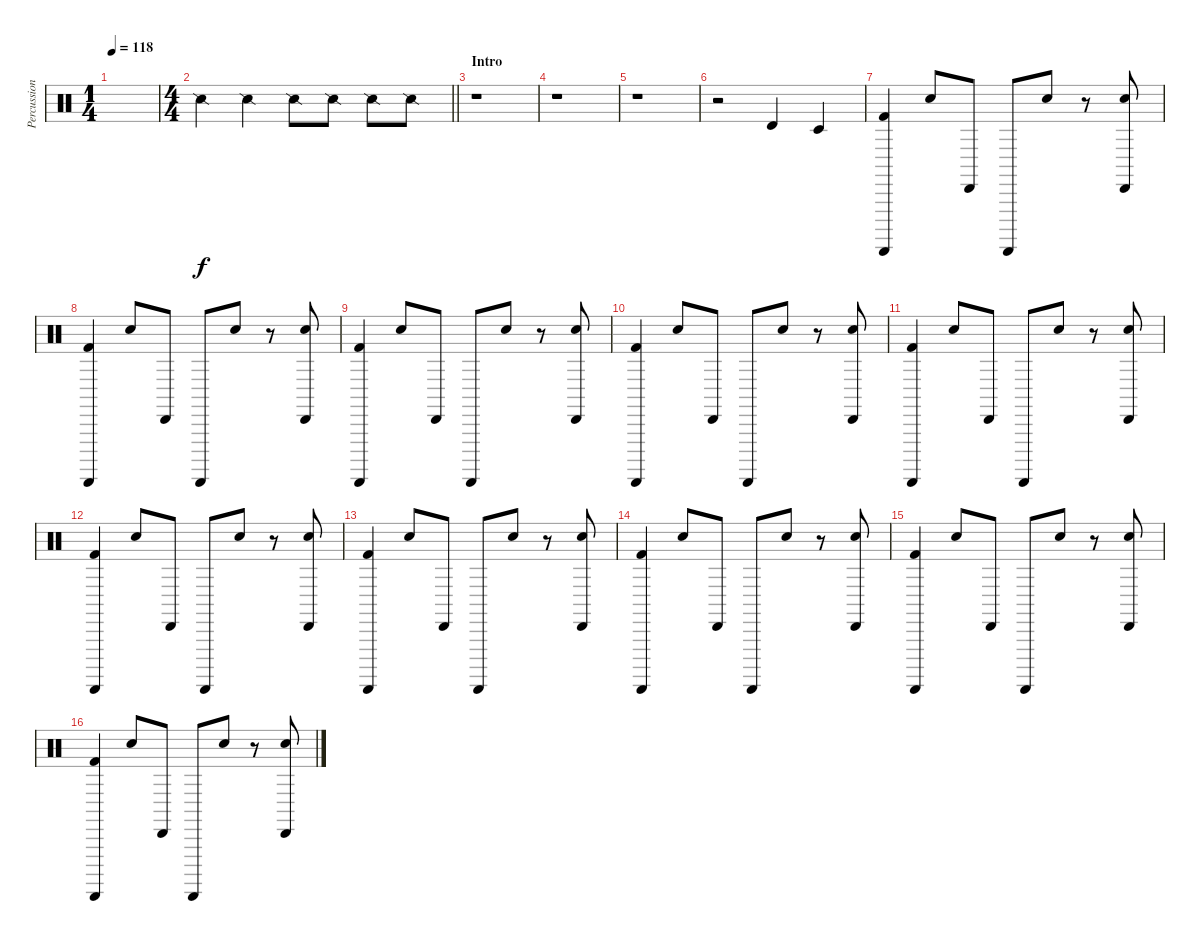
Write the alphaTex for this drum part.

\track ("Percussions" "Percussion") {instrument percussion}
\staff {score}
\articulation defaults
\ts (1 4)
\tempo 118
\clef neutral
\ks c
|
\ts (4 4)
\barLineRight lightlight "Snare (side stick) 2".4 "Snare (side stick) 2".4 "Snare (side stick) 2".8 "Snare (side stick) 2".8 "Snare (side stick) 2".8 "Snare (side stick) 2".8
|
\section ("" "Intro")
r.1 |
r.1 |
r.1 |
r.2 "Timbale high (hit)".4 "Timbale low (hit)".4 |
("Guiro (scrap-return)" "Kick (hit) 2").4 "Snare (hit) 2".8 "Cabasa (hit)".8 "Guiro (scrap-return)".8 "Snare (hit) 2".8 r.8 ("Cabasa (hit)" "Snare (hit) 2").8 |
("Guiro (scrap-return)" "Kick (hit) 2").4 "Snare (hit) 2".8 "Cabasa (hit)".8 "Guiro (scrap-return)".8 "Snare (hit) 2".8 r.8 ("Cabasa (hit)" "Snare (hit) 2").8 |
("Guiro (scrap-return)" "Kick (hit) 2").4 "Snare (hit) 2".8 "Cabasa (hit)".8 "Guiro (scrap-return)".8 "Snare (hit) 2".8 r.8 ("Cabasa (hit)" "Snare (hit) 2").8 |
("Guiro (scrap-return)" "Kick (hit) 2").4 "Snare (hit) 2".8 "Cabasa (hit)".8 "Guiro (scrap-return)".8 "Snare (hit) 2".8 r.8 ("Cabasa (hit)" "Snare (hit) 2").8 |
("Guiro (scrap-return)" "Kick (hit) 2").4 "Snare (hit) 2".8 "Cabasa (hit)".8 "Guiro (scrap-return)".8 "Snare (hit) 2".8 r.8 ("Cabasa (hit)" "Snare (hit) 2").8 |
("Guiro (scrap-return)" "Kick (hit) 2").4 "Snare (hit) 2".8 "Cabasa (hit)".8 "Guiro (scrap-return)".8 "Snare (hit) 2".8 r.8 ("Cabasa (hit)" "Snare (hit) 2").8 |
("Guiro (scrap-return)" "Kick (hit) 2").4 "Snare (hit) 2".8 "Cabasa (hit)".8 "Guiro (scrap-return)".8 "Snare (hit) 2".8 r.8 ("Cabasa (hit)" "Snare (hit) 2").8 |
("Guiro (scrap-return)" "Kick (hit) 2").4 "Snare (hit) 2".8 "Cabasa (hit)".8 "Guiro (scrap-return)".8 "Snare (hit) 2".8 r.8 ("Cabasa (hit)" "Snare (hit) 2").8 |
("Guiro (scrap-return)" "Kick (hit) 2").4 "Snare (hit) 2".8 "Cabasa (hit)".8 "Guiro (scrap-return)".8 "Snare (hit) 2".8 r.8 ("Cabasa (hit)" "Snare (hit) 2").8 |
("Guiro (scrap-return)" "Kick (hit) 2").4 "Snare (hit) 2".8 "Cabasa (hit)".8 "Guiro (scrap-return)".8 "Snare (hit) 2".8 r.8 ("Cabasa (hit)" "Snare (hit) 2").8
